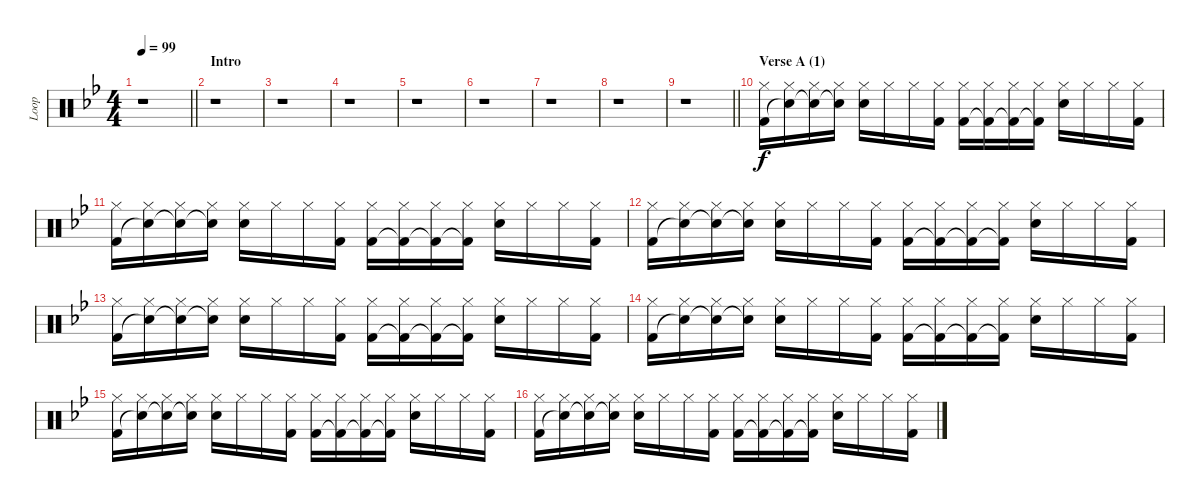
\track ("Loop" "Loop") {instrument percussion}
\staff {score}
\articulation defaults
\ts (4 4)
\tempo 99
\clef neutral
\barLineRight lightlight
\ks gminor
r.1{dy f} |
\section ("" "Intro")
r.1 |
r.1 |
r.1 |
r.1 |
r.1 |
r.1 |
r.1 |
\barLineRight lightlight
r.1 |
\section ("" "Verse A (1)")
("Hi-Hat (closed)" "Kick (hit) 2").16 ("Hi-Hat (closed)" "Snare (hit)"{t}).16 ("Hi-Hat (closed)" "Snare (hit)"{t}).16 ("Hi-Hat (closed)" "Snare (hit)"{t}).16 ("Hi-Hat (closed)" "Electric Snare (hit)").16 "Hi-Hat (closed)".16 "Hi-Hat (closed)".16 ("Hi-Hat (closed)" "Kick (hit) 2").16 ("Hi-Hat (closed)" "Kick (hit) 2").16 ("Hi-Hat (closed)" "Kick (hit) 2"{t}).16 ("Hi-Hat (closed)" "Kick (hit) 2"{t}).16 ("Hi-Hat (closed)" "Kick (hit) 2"{t}).16 ("Hi-Hat (closed)" "Electric Snare (hit)").16 "Hi-Hat (closed)".16 "Hi-Hat (closed)".16 ("Hi-Hat (closed)" "Kick (hit) 2").16 |
("Hi-Hat (closed)" "Kick (hit) 2").16 ("Hi-Hat (closed)" "Snare (hit)"{t}).16 ("Hi-Hat (closed)" "Snare (hit)"{t}).16 ("Hi-Hat (closed)" "Snare (hit)"{t}).16 ("Hi-Hat (closed)" "Electric Snare (hit)").16 "Hi-Hat (closed)".16 "Hi-Hat (closed)".16 ("Hi-Hat (closed)" "Kick (hit) 2").16 ("Hi-Hat (closed)" "Kick (hit) 2").16 ("Hi-Hat (closed)" "Kick (hit) 2"{t}).16 ("Hi-Hat (closed)" "Kick (hit) 2"{t}).16 ("Hi-Hat (closed)" "Kick (hit) 2"{t}).16 ("Hi-Hat (closed)" "Electric Snare (hit)").16 "Hi-Hat (closed)".16 "Hi-Hat (closed)".16 ("Hi-Hat (closed)" "Kick (hit) 2").16 |
("Hi-Hat (closed)" "Kick (hit) 2").16 ("Hi-Hat (closed)" "Snare (hit)"{t}).16 ("Hi-Hat (closed)" "Snare (hit)"{t}).16 ("Hi-Hat (closed)" "Snare (hit)"{t}).16 ("Hi-Hat (closed)" "Electric Snare (hit)").16 "Hi-Hat (closed)".16 "Hi-Hat (closed)".16 ("Hi-Hat (closed)" "Kick (hit) 2").16 ("Hi-Hat (closed)" "Kick (hit) 2").16 ("Hi-Hat (closed)" "Kick (hit) 2"{t}).16 ("Hi-Hat (closed)" "Kick (hit) 2"{t}).16 ("Hi-Hat (closed)" "Kick (hit) 2"{t}).16 ("Hi-Hat (closed)" "Electric Snare (hit)").16 "Hi-Hat (closed)".16 "Hi-Hat (closed)".16 ("Hi-Hat (closed)" "Kick (hit) 2").16 |
("Hi-Hat (closed)" "Kick (hit) 2").16 ("Hi-Hat (closed)" "Snare (hit)"{t}).16 ("Hi-Hat (closed)" "Snare (hit)"{t}).16 ("Hi-Hat (closed)" "Snare (hit)"{t}).16 ("Hi-Hat (closed)" "Electric Snare (hit)").16 "Hi-Hat (closed)".16 "Hi-Hat (closed)".16 ("Hi-Hat (closed)" "Kick (hit) 2").16 ("Hi-Hat (closed)" "Kick (hit) 2").16 ("Hi-Hat (closed)" "Kick (hit) 2"{t}).16 ("Hi-Hat (closed)" "Kick (hit) 2"{t}).16 ("Hi-Hat (closed)" "Kick (hit) 2"{t}).16 ("Hi-Hat (closed)" "Electric Snare (hit)").16 "Hi-Hat (closed)".16 "Hi-Hat (closed)".16 ("Hi-Hat (closed)" "Kick (hit) 2").16 |
("Hi-Hat (closed)" "Kick (hit) 2").16 ("Hi-Hat (closed)" "Snare (hit)"{t}).16 ("Hi-Hat (closed)" "Snare (hit)"{t}).16 ("Hi-Hat (closed)" "Snare (hit)"{t}).16 ("Hi-Hat (closed)" "Electric Snare (hit)").16 "Hi-Hat (closed)".16 "Hi-Hat (closed)".16 ("Hi-Hat (closed)" "Kick (hit) 2").16 ("Hi-Hat (closed)" "Kick (hit) 2").16 ("Hi-Hat (closed)" "Kick (hit) 2"{t}).16 ("Hi-Hat (closed)" "Kick (hit) 2"{t}).16 ("Hi-Hat (closed)" "Kick (hit) 2"{t}).16 ("Hi-Hat (closed)" "Electric Snare (hit)").16 "Hi-Hat (closed)".16 "Hi-Hat (closed)".16 ("Hi-Hat (closed)" "Kick (hit) 2").16 |
("Hi-Hat (closed)" "Kick (hit) 2").16 ("Hi-Hat (closed)" "Snare (hit)"{t}).16 ("Hi-Hat (closed)" "Snare (hit)"{t}).16 ("Hi-Hat (closed)" "Snare (hit)"{t}).16 ("Hi-Hat (closed)" "Electric Snare (hit)").16 "Hi-Hat (closed)".16 "Hi-Hat (closed)".16 ("Hi-Hat (closed)" "Kick (hit) 2").16 ("Hi-Hat (closed)" "Kick (hit) 2").16 ("Hi-Hat (closed)" "Kick (hit) 2"{t}).16 ("Hi-Hat (closed)" "Kick (hit) 2"{t}).16 ("Hi-Hat (closed)" "Kick (hit) 2"{t}).16 ("Hi-Hat (closed)" "Electric Snare (hit)").16 "Hi-Hat (closed)".16 "Hi-Hat (closed)".16 ("Hi-Hat (closed)" "Kick (hit) 2").16 |
("Hi-Hat (closed)" "Kick (hit) 2").16 ("Hi-Hat (closed)" "Snare (hit)"{t}).16 ("Hi-Hat (closed)" "Snare (hit)"{t}).16 ("Hi-Hat (closed)" "Snare (hit)"{t}).16 ("Hi-Hat (closed)" "Electric Snare (hit)").16 "Hi-Hat (closed)".16 "Hi-Hat (closed)".16 ("Hi-Hat (closed)" "Kick (hit) 2").16 ("Hi-Hat (closed)" "Kick (hit) 2").16 ("Hi-Hat (closed)" "Kick (hit) 2"{t}).16 ("Hi-Hat (closed)" "Kick (hit) 2"{t}).16 ("Hi-Hat (closed)" "Kick (hit) 2"{t}).16 ("Hi-Hat (closed)" "Electric Snare (hit)").16 "Hi-Hat (closed)".16 "Hi-Hat (closed)".16 ("Hi-Hat (closed)" "Kick (hit) 2").16
